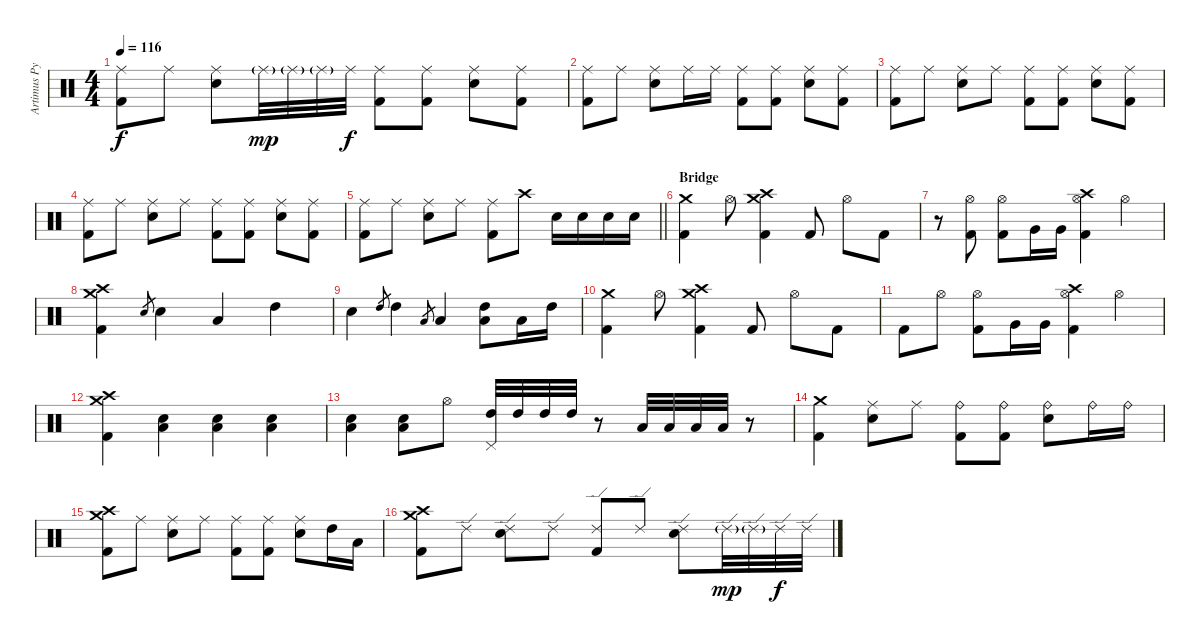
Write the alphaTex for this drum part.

\track ("Artimus Pyle - Drums and Percussion" "Artimus Py") {instrument percussion}
\staff {score}
\articulation defaults
\ts (4 4)
\tempo 116
\clef neutral
\ks c
("Ride (middle)" "Kick (hit) 2").8{dy f} "Ride (middle)".8 ("Ride (middle)" "Snare (hit) 2").8 "Ride (middle)"{g}.32{dy mp} "Ride (middle)"{g}.32 "Ride (middle)"{g}.32 "Ride (middle)".32{dy f} ("Ride (middle)" "Kick (hit) 2").8 ("Ride (middle)" "Kick (hit) 2").8 ("Ride (middle)" "Snare (hit) 2").8 ("Ride (middle)" "Kick (hit) 2").8 |
("Ride (middle)" "Kick (hit) 2").8 "Ride (middle)".8 ("Ride (middle)" "Snare (hit) 2").8 "Ride (middle)".16 "Ride (middle)".16 ("Ride (middle)" "Kick (hit) 2").8 ("Ride (middle)" "Kick (hit) 2").8 ("Ride (middle)" "Snare (hit) 2").8 ("Ride (middle)" "Kick (hit) 2").8 |
("Ride (middle)" "Kick (hit) 2").8 "Ride (middle)".8 ("Ride (middle)" "Snare (hit) 2").8 "Ride (middle)".8 ("Ride (middle)" "Kick (hit) 2").8 ("Ride (middle)" "Kick (hit) 2").8 ("Ride (middle)" "Snare (hit) 2").8 ("Ride (middle)" "Kick (hit) 2").8 |
("Ride (middle)" "Kick (hit) 2").8 "Ride (middle)".8 ("Ride (middle)" "Snare (hit) 2").8 "Ride (middle)".8 ("Ride (middle)" "Kick (hit) 2").8 ("Ride (middle)" "Kick (hit) 2").8 ("Ride (middle)" "Snare (hit) 2").8 ("Ride (middle)" "Kick (hit) 2").8 |
\barLineRight lightlight
("Ride (middle)" "Kick (hit) 2").8 "Ride (middle)".8 ("Ride (middle)" "Snare (hit) 2").8 "Ride (middle)".8 ("Ride (middle)" "Kick (hit) 2").8 "Crash high (hit)".8 "Snare (hit) 2".16 "Snare (hit) 2".16 "Snare (hit) 2".16 "Snare (hit) 2".16 |
\section ("" "Bridge")
("Crash medium (hit)" "Kick (hit) 2").4 "Hi-Hat (open)".8 ("Crash medium (hit)" "Crash high (hit)" "Kick (hit) 2").4 "Kick (hit) 2".8 "Hi-Hat (open)".8 "Kick (hit) 2".8 |
r.8 ("Hi-Hat (open)" "Kick (hit) 2").8 ("Hi-Hat (open)" "Kick (hit) 2").8 "Very Low Tom (hit)".16 "Very Low Tom (hit)".16 ("Crash high (hit)" "Hi-Hat (open)" "Kick (hit) 2").4 "Hi-Hat (open)".4 |
("Crash medium (hit)" "Crash high (hit)" "Kick (hit) 2").4 "Snare (hit) 2".8{gr} "Snare (hit) 2".4 "Low Floor Tom (hit)".4 "High Tom (hit)".4 |
"Snare (hit) 2".4 "High Tom (hit)".8{gr} "High Tom (hit)".4 "Low Floor Tom (hit)".8{gr} "Low Floor Tom (hit)".4 ("High Tom (hit)" "Low Floor Tom (hit)").8 "Low Floor Tom (hit)".16 "High Tom (hit)".16 |
("Crash medium (hit)" "Kick (hit) 2").4 "Hi-Hat (open)".8 ("Crash medium (hit)" "Crash high (hit)" "Kick (hit) 2").4 "Kick (hit) 2".8 "Hi-Hat (open)".8 "Kick (hit) 2".8 |
"Kick (hit) 2".8 "Hi-Hat (open)".8 ("Hi-Hat (open)" "Kick (hit) 2").8 "Very Low Tom (hit)".16 "Very Low Tom (hit)".16 ("Crash high (hit)" "Hi-Hat (open)" "Kick (hit) 2").4 "Hi-Hat (open)".4 |
("Crash medium (hit)" "Crash high (hit)" "Kick (hit) 2").4 ("Snare (hit) 2" "Low Tom (hit)").4 ("Snare (hit) 2" "Low Tom (hit)").4 ("Snare (hit) 2" "Low Tom (hit)").4 |
("Snare (hit) 2" "Low Tom (hit)").4 ("Snare (hit) 2" "Low Tom (hit)").8 "Hi-Hat (open)".8 ("High Tom (hit)" "Pedal Hi-Hat (hit)").32 "High Tom (hit)".32 "High Tom (hit)".32 "High Tom (hit)".32 r.8 "Low Tom (hit)".32 "Low Tom (hit)".32 "Low Tom (hit)".32 "Low Tom (hit)".32 r.8 |
("Crash medium (hit)" "Kick (hit) 2").4 ("Ride (middle)" "Snare (hit) 2").8 "Ride (middle)".8 ("Ride (bell)" "Kick (hit) 2").8 ("Ride (bell)" "Kick (hit) 2").8 ("Ride (bell)" "Snare (hit) 2").8 "Ride (bell)".16 "Ride (bell)".16 |
("Crash medium (hit)" "Crash high (hit)" "Kick (hit) 2").8 "Ride (middle)".8 ("Ride (middle)" "Snare (hit) 2").8 "Ride (middle)".8 ("Ride (middle)" "Kick (hit) 2").8 ("Ride (middle)" "Kick (hit) 2").8 ("Ride (middle)" "Snare (hit) 2").8 "High Tom (hit)".16 "Low Floor Tom (hit)".16 |
("Crash medium (hit)" "Crash high (hit)" "Kick (hit) 2").8 "Ride (edge) 2".8 ("Ride (edge) 2" "Snare (hit) 2").8 "Ride (edge) 2".8 ("Ride (edge) 2" "Kick (hit) 2").8 "Ride (edge) 2".8 ("Ride (edge) 2" "Snare (hit) 2").8 "Ride (edge) 2"{g}.32{dy mp} "Ride (edge) 2"{g}.32 "Ride (edge) 2".32{dy f} "Ride (edge) 2".32
